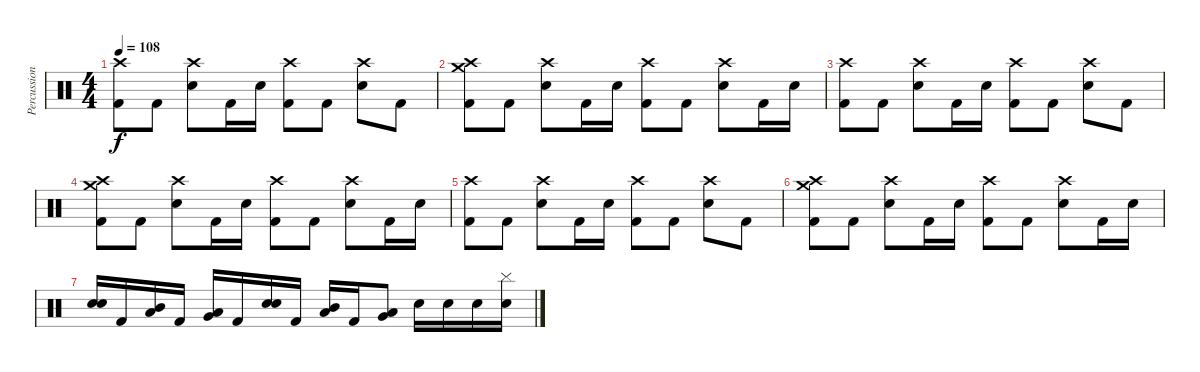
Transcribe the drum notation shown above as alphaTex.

\track ("Percussion" "Percussion") {instrument percussion}
\staff {score}
\articulation defaults
\ts (4 4)
\tempo 108
\clef neutral
\ks c
("Crash high (hit)" "Kick (hit) 2").8{dy f} "Kick (hit) 2".8 ("Crash high (hit)" "Electric Snare (hit)").8 "Kick (hit) 2".16 "Electric Snare (hit)".16 ("Crash high (hit)" "Kick (hit) 2").8 "Kick (hit) 2".8 ("Crash high (hit)" "Electric Snare (hit)").8 "Kick (hit) 2".8 |
("Crash medium (hit)" "Crash high (hit)" "Kick (hit) 2").8 "Kick (hit) 2".8 ("Crash high (hit)" "Electric Snare (hit)").8 "Kick (hit) 2".16 "Electric Snare (hit)".16 ("Crash high (hit)" "Kick (hit) 2").8 "Kick (hit) 2".8 ("Crash high (hit)" "Electric Snare (hit)").8 "Kick (hit) 2".16 "Electric Snare (hit)".16 |
("Crash high (hit)" "Kick (hit) 2").8 "Kick (hit) 2".8 ("Crash high (hit)" "Electric Snare (hit)").8 "Kick (hit) 2".16 "Electric Snare (hit)".16 ("Crash high (hit)" "Kick (hit) 2").8 "Kick (hit) 2".8 ("Crash high (hit)" "Electric Snare (hit)").8 "Kick (hit) 2".8 |
("Crash medium (hit)" "Crash high (hit)" "Kick (hit) 2").8 "Kick (hit) 2".8 ("Crash high (hit)" "Electric Snare (hit)").8 "Kick (hit) 2".16 "Electric Snare (hit)".16 ("Crash high (hit)" "Kick (hit) 2").8 "Kick (hit) 2".8 ("Crash high (hit)" "Electric Snare (hit)").8 "Kick (hit) 2".16 "Electric Snare (hit)".16 |
("Crash high (hit)" "Kick (hit) 2").8 "Kick (hit) 2".8 ("Crash high (hit)" "Electric Snare (hit)").8 "Kick (hit) 2".16 "Electric Snare (hit)".16 ("Crash high (hit)" "Kick (hit) 2").8 "Kick (hit) 2".8 ("Crash high (hit)" "Electric Snare (hit)").8 "Kick (hit) 2".8 |
("Crash medium (hit)" "Crash high (hit)" "Kick (hit) 2").8 "Kick (hit) 2".8 ("Crash high (hit)" "Electric Snare (hit)").8 "Kick (hit) 2".16 "Electric Snare (hit)".16 ("Crash high (hit)" "Kick (hit) 2").8 "Kick (hit) 2".8 ("Crash high (hit)" "Electric Snare (hit)").8 "Kick (hit) 2".16 "Electric Snare (hit)".16 |
("Electric Snare (hit)" "Electric Snare (hit)").16{bd 240} "Kick (hit) 2".16 ("Low Tom (hit)" "Mid Tom (hit)").16{bd 240} "Kick (hit) 2".16 ("Very Low Tom (hit)" "Low Tom (hit)").16{bd 240} "Kick (hit) 2".16 ("Electric Snare (hit)" "Electric Snare (hit)").16{bd 240} "Kick (hit) 2".16 ("Mid Tom (hit)" "Low Tom (hit)").16{bd 240} "Kick (hit) 2".16 ("Very Low Tom (hit)" "Low Tom (hit)").8{bd 240} "Electric Snare (hit)".16 "Electric Snare (hit)".16 "Electric Snare (hit)".16 ("Electric Snare (hit)" "Cymbal (hit)").16
